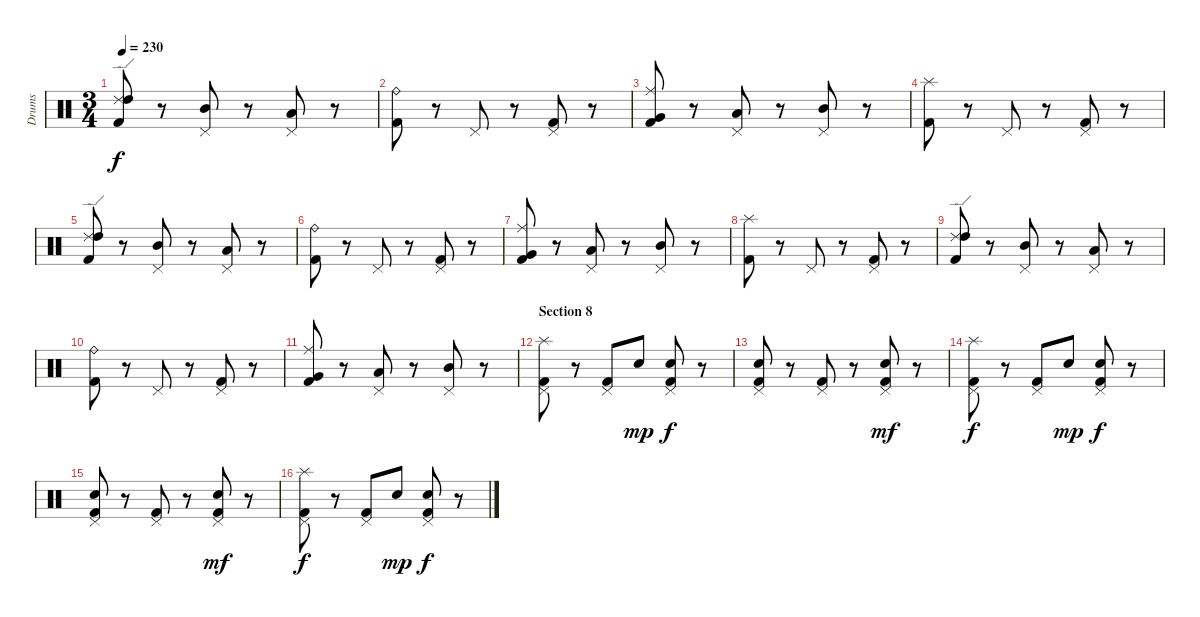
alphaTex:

\track ("Drums" "Drums") {instrument percussion}
\staff {score}
\articulation defaults
\ts (3 4)
\tempo 230
\clef neutral
\ks c
("Ride (edge) 2" "High Tom (hit)" "Kick (hit) 2").8{dy f} r.8 ("Mid Tom (hit)" "Pedal Hi-Hat (hit)").8 r.8 ("Pedal Hi-Hat (hit)" "Low Tom (hit)").8 r.8 |
("Ride (bell)" "Kick (hit) 2").8 r.8 "Pedal Hi-Hat (hit)".8 r.8 ("Pedal Hi-Hat (hit)" "Kick (hit) 2").8 r.8 |
("Ride (middle)" "Very Low Tom (hit)" "Kick (hit) 2").8 r.8 ("Pedal Hi-Hat (hit)" "Low Tom (hit)").8 r.8 ("Mid Tom (hit)" "Pedal Hi-Hat (hit)").8 r.8 |
("Splash (hit)" "Kick (hit) 2").8 r.8 "Pedal Hi-Hat (hit)".8 r.8 ("Pedal Hi-Hat (hit)" "Kick (hit) 2").8 r.8 |
("Ride (edge) 2" "High Tom (hit)" "Kick (hit) 2").8 r.8 ("Mid Tom (hit)" "Pedal Hi-Hat (hit)").8 r.8 ("Pedal Hi-Hat (hit)" "Low Tom (hit)").8 r.8 |
("Ride (bell)" "Kick (hit) 2").8 r.8 "Pedal Hi-Hat (hit)".8 r.8 ("Pedal Hi-Hat (hit)" "Kick (hit) 2").8 r.8 |
("Ride (middle)" "Very Low Tom (hit)" "Kick (hit) 2").8 r.8 ("Pedal Hi-Hat (hit)" "Low Tom (hit)").8 r.8 ("Mid Tom (hit)" "Pedal Hi-Hat (hit)").8 r.8 |
("Splash (hit)" "Kick (hit) 2").8 r.8 "Pedal Hi-Hat (hit)".8 r.8 ("Pedal Hi-Hat (hit)" "Kick (hit) 2").8 r.8 |
("Ride (edge) 2" "High Tom (hit)" "Kick (hit) 2").8 r.8 ("Mid Tom (hit)" "Pedal Hi-Hat (hit)").8 r.8 ("Pedal Hi-Hat (hit)" "Low Tom (hit)").8 r.8 |
("Ride (bell)" "Kick (hit) 2").8 r.8 "Pedal Hi-Hat (hit)".8 r.8 ("Pedal Hi-Hat (hit)" "Kick (hit) 2").8 r.8 |
("Ride (middle)" "Very Low Tom (hit)" "Kick (hit) 2").8 r.8 ("Pedal Hi-Hat (hit)" "Low Tom (hit)").8 r.8 ("Mid Tom (hit)" "Pedal Hi-Hat (hit)").8 r.8 |
\section ("" "Section 8")
("Splash (hit)" "Pedal Hi-Hat (hit)" "Kick (hit) 2").8 r.8 ("Pedal Hi-Hat (hit)" "Kick (hit) 2").8 "Electric Snare (hit)".8{dy mp} ("Pedal Hi-Hat (hit)" "Electric Snare (hit)" "Kick (hit) 2").8{dy f} r.8 |
("Pedal Hi-Hat (hit)" "Electric Snare (hit)" "Kick (hit) 2").8 r.8 ("Pedal Hi-Hat (hit)" "Kick (hit) 2").8 r.8 ("Pedal Hi-Hat (hit)" "Electric Snare (hit)" "Kick (hit) 2").8{dy mf} r.8 |
("Splash (hit)" "Pedal Hi-Hat (hit)" "Kick (hit) 2").8{dy f} r.8 ("Pedal Hi-Hat (hit)" "Kick (hit) 2").8 "Electric Snare (hit)".8{dy mp} ("Pedal Hi-Hat (hit)" "Electric Snare (hit)" "Kick (hit) 2").8{dy f} r.8 |
("Pedal Hi-Hat (hit)" "Electric Snare (hit)" "Kick (hit) 2").8 r.8 ("Pedal Hi-Hat (hit)" "Kick (hit) 2").8 r.8 ("Pedal Hi-Hat (hit)" "Electric Snare (hit)" "Kick (hit) 2").8{dy mf} r.8 |
("Splash (hit)" "Pedal Hi-Hat (hit)" "Kick (hit) 2").8{dy f} r.8 ("Pedal Hi-Hat (hit)" "Kick (hit) 2").8 "Electric Snare (hit)".8{dy mp} ("Pedal Hi-Hat (hit)" "Electric Snare (hit)" "Kick (hit) 2").8{dy f} r.8
